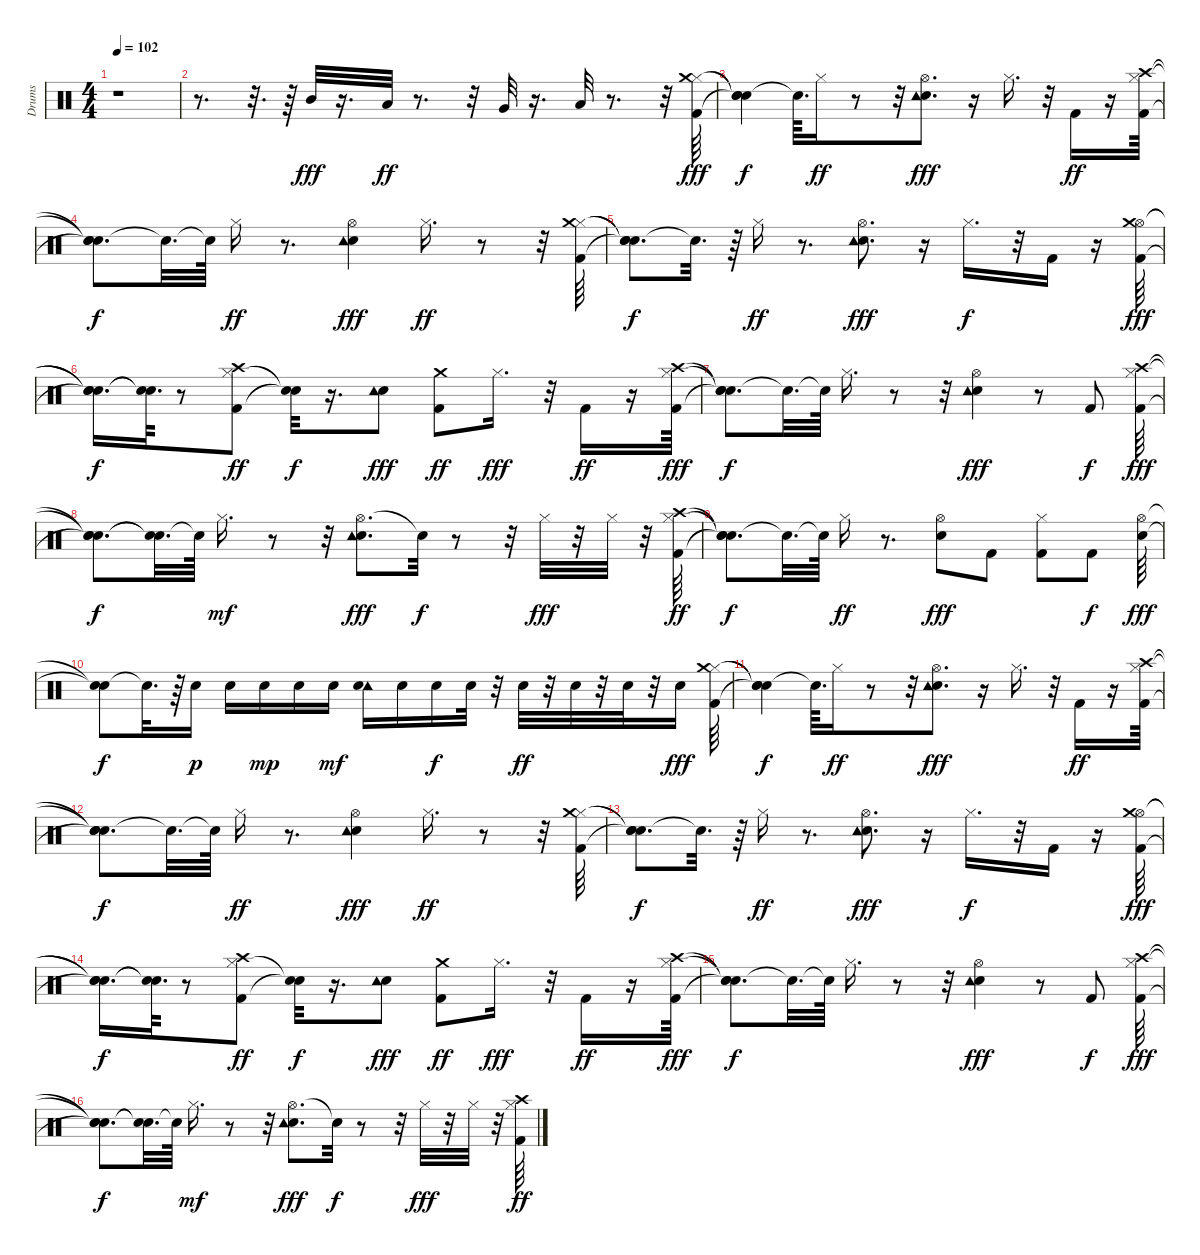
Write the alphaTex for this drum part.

\track ("Drums" "Drums") {instrument percussion}
\staff {score}
\articulation defaults
\ts (4 4)
\tempo 102
\clef neutral
\ks c
r.1{dy f} |
r.8{d} r.32{d} r.64 "Mid Tom (hit)".32{dy fff} r.16{d} "Low Tom (hit)".32{dy ff} r.8{d} r.32 "Very Low Tom (hit)".32 r.16{d} "Low Floor Tom (hit)".32 r.8{d} r.32 ("Kick (hit) 2" "Hi-Hat (closed)" "Crash medium (hit)").64{dy fff} |
("Snare (hit)"{t} "Snare (hit)"{t} "Snare (hit)"{t}).4{dy f} "Snare (hit)"{t}.64{d} "Hi-Hat (closed)".16{dy ff} r.8 r.32 ("Hi-Hat (open)" "Electric Snare (hit)" "Tambourine (hit)").8{d dy fff} r.16 "Hi-Hat (closed)".16{d} r.32 "Kick (hit) 2".16{dy ff} r.16 ("Kick (hit) 2" "Hi-Hat (closed)" "Crash high (hit)").64 |
("Snare (hit)"{t} "Snare (hit)"{t} "Snare (hit)"{t}).8{d dy f} "Snare (hit)"{t}.32{d} "Snare (hit)"{t}.64 "Hi-Hat (closed)".16{dy ff} r.8{d} ("Hi-Hat (open)" "Electric Snare (hit)" "Tambourine (hit)").4{dy fff} "Hi-Hat (closed)".16{d dy ff} r.8 r.32 ("Kick (hit) 2" "Hi-Hat (closed)" "Crash medium (hit)").64 |
("Snare (hit)"{t} "Snare (hit)"{t} "Snare (hit)"{t}).8{d dy f} "Snare (hit)"{t}.32{d} r.64 "Hi-Hat (closed)".16{dy ff} r.8{d} ("Hi-Hat (open)" "Electric Snare (hit)" "Tambourine (hit)").8{d dy fff} r.16 "Hi-Hat (closed)".16{d dy f} r.32 "Kick (hit) 2".16 r.16 ("Kick (hit) 2" "Hi-Hat (open)" "Crash medium (hit)").64{dy fff} |
("Snare (hit)"{t} "Snare (hit)"{t} "Snare (hit)"{t}).16{d dy f} ("Snare (hit)"{t} "Snare (hit)"{t}).64{d} r.8 ("Hi-Hat (closed)" "Kick (hit) 2" "Crash high (hit)").8{dy ff} ("Snare (hit)"{t} "Snare (hit)"{t}).32{dy f} r.16{d} ("Electric Snare (hit)" "Tambourine (hit)").8{dy fff} ("Kick (hit) 2" "Crash medium (hit)").8{dy ff} "Hi-Hat (closed)".16{d dy fff} r.32 "Kick (hit) 2".16{dy ff} r.16 ("Kick (hit) 2" "Hi-Hat (closed)" "Crash high (hit)").64{dy fff} |
("Snare (hit)"{t} "Snare (hit)"{t} "Snare (hit)"{t}).8{d dy f} "Snare (hit)"{t}.32{d} "Snare (hit)"{t}.64 "Hi-Hat (closed)".16{d} r.8 r.32 ("Hi-Hat (open)" "Electric Snare (hit)" "Tambourine (hit)").4{dy fff} r.8 "Kick (hit) 2".8{dy f} ("Kick (hit) 2" "Hi-Hat (closed)" "Crash high (hit)").64{dy fff} |
("Snare (hit)"{t} "Snare (hit)"{t} "Snare (hit)"{t}).8{d dy f} ("Snare (hit)"{t} "Snare (hit)"{t}).32{d} "Snare (hit)"{t}.64 "Hi-Hat (closed)".16{d dy mf} r.8 r.32 ("Hi-Hat (open)" "Electric Snare (hit)" "Tambourine (hit)").8{d dy fff} "Snare (hit)"{t}.32{dy f} r.8 r.32 "Hi-Hat (closed)".32{dy fff} r.32 "Hi-Hat (closed)".32 r.32 ("Crash high (hit)" "Kick (hit) 2" "Hi-Hat (closed)").64{dy ff} |
("Snare (hit)"{t} "Snare (hit)"{t} "Snare (hit)"{t}).8{d dy f} "Snare (hit)"{t}.32{d} "Snare (hit)"{t}.64 "Hi-Hat (closed)".16{dy ff} r.8{d} ("Hi-Hat (open)" "Electric Snare (hit)").8{dy fff} "Kick (hit) 2".8 ("Kick (hit) 2" "Hi-Hat (closed)").8 "Kick (hit) 2".8{dy f} ("Electric Snare (hit)" "Hi-Hat (open)").64{dy fff} |
("Snare (hit)"{t} "Snare (hit)"{t}).8{dy f} "Snare (hit)"{t}.32{d} r.64 "Electric Snare (hit)".16{dy p} "Electric Snare (hit)".16 "Electric Snare (hit)".16{dy mp} "Electric Snare (hit)".16 "Electric Snare (hit)".16{dy mf} ("Tambourine (hit)" "Electric Snare (hit)").16 "Electric Snare (hit)".16 "Electric Snare (hit)".16{dy f} "Electric Snare (hit)".32 r.32 "Electric Snare (hit)".32{dy ff} r.32 "Electric Snare (hit)".32 r.32 "Electric Snare (hit)".32 r.32 "Electric Snare (hit)".16{dy fff} ("Kick (hit) 2" "Hi-Hat (closed)" "Crash medium (hit)").64 |
("Snare (hit)"{t} "Snare (hit)"{t} "Snare (hit)"{t}).4{dy f} "Snare (hit)"{t}.64{d} "Hi-Hat (closed)".16{dy ff} r.8 r.32 ("Hi-Hat (open)" "Electric Snare (hit)" "Tambourine (hit)").8{d dy fff} r.16 "Hi-Hat (closed)".16{d} r.32 "Kick (hit) 2".16{dy ff} r.16 ("Kick (hit) 2" "Hi-Hat (closed)" "Crash high (hit)").64 |
("Snare (hit)"{t} "Snare (hit)"{t} "Snare (hit)"{t}).8{d dy f} "Snare (hit)"{t}.32{d} "Snare (hit)"{t}.64 "Hi-Hat (closed)".16{dy ff} r.8{d} ("Hi-Hat (open)" "Electric Snare (hit)" "Tambourine (hit)").4{dy fff} "Hi-Hat (closed)".16{d dy ff} r.8 r.32 ("Kick (hit) 2" "Hi-Hat (closed)" "Crash medium (hit)").64 |
("Snare (hit)"{t} "Snare (hit)"{t} "Snare (hit)"{t}).8{d dy f} "Snare (hit)"{t}.32{d} r.64 "Hi-Hat (closed)".16{dy ff} r.8{d} ("Hi-Hat (open)" "Electric Snare (hit)" "Tambourine (hit)").8{d dy fff} r.16 "Hi-Hat (closed)".16{d dy f} r.32 "Kick (hit) 2".16 r.16 ("Kick (hit) 2" "Hi-Hat (open)" "Crash medium (hit)").64{dy fff} |
("Snare (hit)"{t} "Snare (hit)"{t} "Snare (hit)"{t}).16{d dy f} ("Snare (hit)"{t} "Snare (hit)"{t}).64{d} r.8 ("Hi-Hat (closed)" "Kick (hit) 2" "Crash high (hit)").8{dy ff} ("Snare (hit)"{t} "Snare (hit)"{t}).32{dy f} r.16{d} ("Electric Snare (hit)" "Tambourine (hit)").8{dy fff} ("Kick (hit) 2" "Crash medium (hit)").8{dy ff} "Hi-Hat (closed)".16{d dy fff} r.32 "Kick (hit) 2".16{dy ff} r.16 ("Kick (hit) 2" "Hi-Hat (closed)" "Crash high (hit)").64{dy fff} |
("Snare (hit)"{t} "Snare (hit)"{t} "Snare (hit)"{t}).8{d dy f} "Snare (hit)"{t}.32{d} "Snare (hit)"{t}.64 "Hi-Hat (closed)".16{d} r.8 r.32 ("Hi-Hat (open)" "Electric Snare (hit)" "Tambourine (hit)").4{dy fff} r.8 "Kick (hit) 2".8{dy f} ("Kick (hit) 2" "Hi-Hat (closed)" "Crash high (hit)").64{dy fff} |
("Snare (hit)"{t} "Snare (hit)"{t} "Snare (hit)"{t}).8{d dy f} ("Snare (hit)"{t} "Snare (hit)"{t}).32{d} "Snare (hit)"{t}.64 "Hi-Hat (closed)".16{d dy mf} r.8 r.32 ("Hi-Hat (open)" "Electric Snare (hit)" "Tambourine (hit)").8{d dy fff} "Snare (hit)"{t}.32{dy f} r.8 r.32 "Hi-Hat (closed)".32{dy fff} r.32 "Hi-Hat (closed)".32 r.32 ("Crash high (hit)" "Kick (hit) 2" "Hi-Hat (closed)").64{dy ff}
